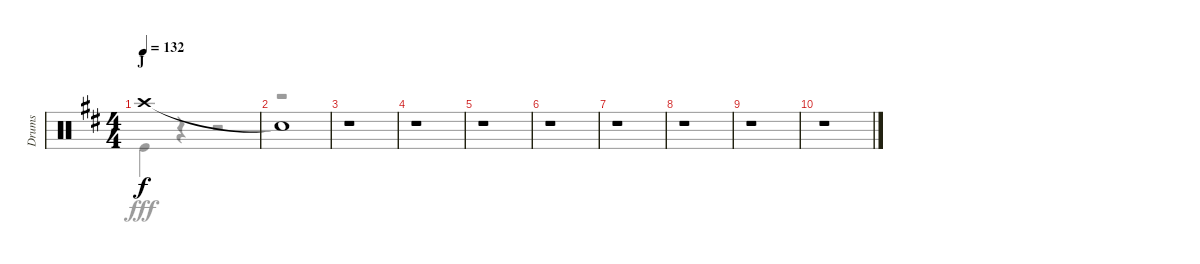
\track ("Drums" "Drums") {instrument percussion}
\staff {score}
\articulation defaults
\voice
\ts (4 4)
\section ("" "J")
\tempo 132
\clef neutral
\ks d "Crash high (hit)".1{dy f}
|
"Snare (hit)"{t}.1 |
r.1 |
r.1 |
r.1 |
r.1 |
r.1 |
r.1 |
r.1 |
r.1
\voice
\clef neutral
\ottava regular
\simile none
\ks d "Kick (hit)".4{dy fff}
r.4 r.2 |
r.1 |
r.1 |
r.1 |
r.1 |
r.1 |
r.1 |
r.1 |
r.1 |
r.1
